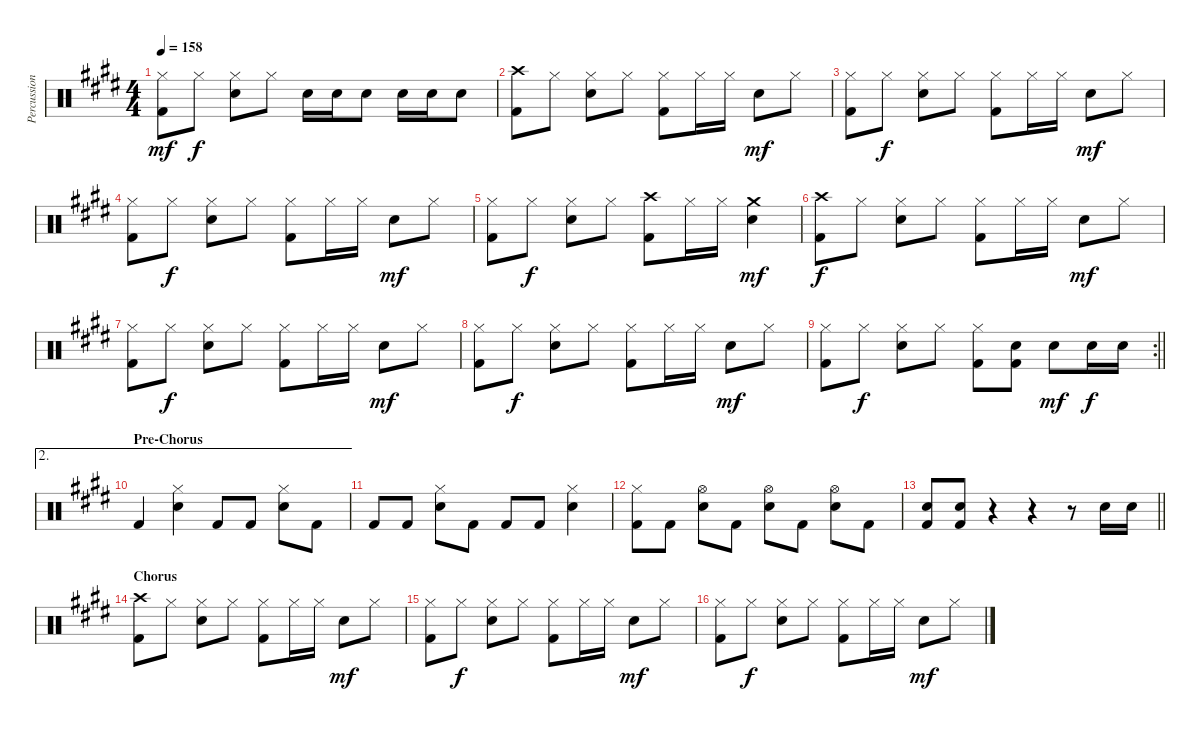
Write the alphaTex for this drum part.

\track ("Percussion" "Percussion") {instrument percussion}
\staff {score}
\articulation defaults
\ts (4 4)
\tempo 158
\clef neutral
\ks e
("Hi-Hat (closed)" "Kick (hit) 2").8{dy mf} "Hi-Hat (closed)".8{dy f} ("Hi-Hat (closed)" "Snare (hit) 2").8 "Hi-Hat (closed)".8 "Snare (hit) 2".16 "Snare (hit) 2".16 "Snare (hit) 2".8 "Snare (hit) 2".16 "Snare (hit) 2".16 "Snare (hit) 2".8 |
("Crash high (hit)" "Kick (hit) 2").8 "Hi-Hat (closed)".8 ("Hi-Hat (closed)" "Snare (hit) 2").8 "Hi-Hat (closed)".8 ("Hi-Hat (closed)" "Kick (hit) 2").8 "Hi-Hat (closed)".16 "Hi-Hat (closed)".16 "Snare (hit) 2".8{dy mf} "Hi-Hat (closed)".8 |
("Hi-Hat (closed)" "Kick (hit) 2").8 "Hi-Hat (closed)".8{dy f} ("Hi-Hat (closed)" "Snare (hit) 2").8 "Hi-Hat (closed)".8 ("Hi-Hat (closed)" "Kick (hit) 2").8 "Hi-Hat (closed)".16 "Hi-Hat (closed)".16 "Snare (hit) 2".8{dy mf} "Hi-Hat (closed)".8 |
("Hi-Hat (closed)" "Kick (hit) 2").8 "Hi-Hat (closed)".8{dy f} ("Hi-Hat (closed)" "Snare (hit) 2").8 "Hi-Hat (closed)".8 ("Hi-Hat (closed)" "Kick (hit) 2").8 "Hi-Hat (closed)".16 "Hi-Hat (closed)".16 "Snare (hit) 2".8{dy mf} "Hi-Hat (closed)".8 |
("Hi-Hat (closed)" "Kick (hit) 2").8 "Hi-Hat (closed)".8{dy f} ("Hi-Hat (closed)" "Snare (hit) 2").8 "Hi-Hat (closed)".8 ("Crash high (hit)" "Kick (hit) 2").8 "Hi-Hat (closed)".16 "Hi-Hat (closed)".16 ("Crash medium (hit)" "Snare (hit) 2").4{dy mf} |
("Crash high (hit)" "Kick (hit) 2").8{dy f} "Hi-Hat (closed)".8 ("Hi-Hat (closed)" "Snare (hit) 2").8 "Hi-Hat (closed)".8 ("Hi-Hat (closed)" "Kick (hit) 2").8 "Hi-Hat (closed)".16 "Hi-Hat (closed)".16 "Snare (hit) 2".8{dy mf} "Hi-Hat (closed)".8 |
("Hi-Hat (closed)" "Kick (hit) 2").8 "Hi-Hat (closed)".8{dy f} ("Hi-Hat (closed)" "Snare (hit) 2").8 "Hi-Hat (closed)".8 ("Hi-Hat (closed)" "Kick (hit) 2").8 "Hi-Hat (closed)".16 "Hi-Hat (closed)".16 "Snare (hit) 2".8{dy mf} "Hi-Hat (closed)".8 |
("Hi-Hat (closed)" "Kick (hit) 2").8 "Hi-Hat (closed)".8{dy f} ("Hi-Hat (closed)" "Snare (hit) 2").8 "Hi-Hat (closed)".8 ("Hi-Hat (closed)" "Kick (hit) 2").8 "Hi-Hat (closed)".16 "Hi-Hat (closed)".16 "Snare (hit) 2".8{dy mf} "Hi-Hat (closed)".8 |
\rc 2
\barLineRight lightlight
("Hi-Hat (closed)" "Kick (hit) 2").8 "Hi-Hat (closed)".8{dy f} ("Hi-Hat (closed)" "Snare (hit) 2").8 "Hi-Hat (closed)".8 ("Hi-Hat (closed)" "Kick (hit) 2").8 ("Snare (hit) 2" "Kick (hit) 2").8 "Snare (hit) 2".8{dy mf} "Snare (hit) 2".16{dy f} "Snare (hit) 2".16 |
\ae 2
\section ("" "Pre-Chorus")
"Kick (hit) 2".4 ("Hi-Hat (closed)" "Snare (hit) 2").4 "Kick (hit) 2".8 "Kick (hit) 2".8 ("Hi-Hat (closed)" "Snare (hit) 2").8 "Kick (hit) 2".8 |
"Kick (hit) 2".8 "Kick (hit) 2".8 ("Hi-Hat (closed)" "Snare (hit) 2").8 "Kick (hit) 2".8 "Kick (hit) 2".8 "Kick (hit) 2".8 ("Hi-Hat (closed)" "Snare (hit) 2").4 |
("Hi-Hat (closed)" "Kick (hit) 2").8 "Kick (hit) 2".8 ("Hi-Hat (open)" "Snare (hit) 2").8 "Kick (hit) 2".8 ("Hi-Hat (open)" "Snare (hit) 2").8 "Kick (hit) 2".8 ("Hi-Hat (open)" "Snare (hit) 2").8 "Kick (hit) 2".8 |
\barLineRight lightlight
("Snare (hit) 2" "Kick (hit) 2").8 ("Snare (hit) 2" "Kick (hit) 2").8 r.4 r.4 r.8 "Snare (hit) 2".16 "Snare (hit) 2".16 |
\section ("" "Chorus")
("Crash high (hit)" "Kick (hit) 2").8 "Hi-Hat (closed)".8 ("Hi-Hat (closed)" "Snare (hit) 2").8 "Hi-Hat (closed)".8 ("Hi-Hat (closed)" "Kick (hit) 2").8 "Hi-Hat (closed)".16 "Hi-Hat (closed)".16 "Snare (hit) 2".8{dy mf} "Hi-Hat (closed)".8 |
("Hi-Hat (closed)" "Kick (hit) 2").8 "Hi-Hat (closed)".8{dy f} ("Hi-Hat (closed)" "Snare (hit) 2").8 "Hi-Hat (closed)".8 ("Hi-Hat (closed)" "Kick (hit) 2").8 "Hi-Hat (closed)".16 "Hi-Hat (closed)".16 "Snare (hit) 2".8{dy mf} "Hi-Hat (closed)".8 |
("Hi-Hat (closed)" "Kick (hit) 2").8 "Hi-Hat (closed)".8{dy f} ("Hi-Hat (closed)" "Snare (hit) 2").8 "Hi-Hat (closed)".8 ("Hi-Hat (closed)" "Kick (hit) 2").8 "Hi-Hat (closed)".16 "Hi-Hat (closed)".16 "Snare (hit) 2".8{dy mf} "Hi-Hat (closed)".8
